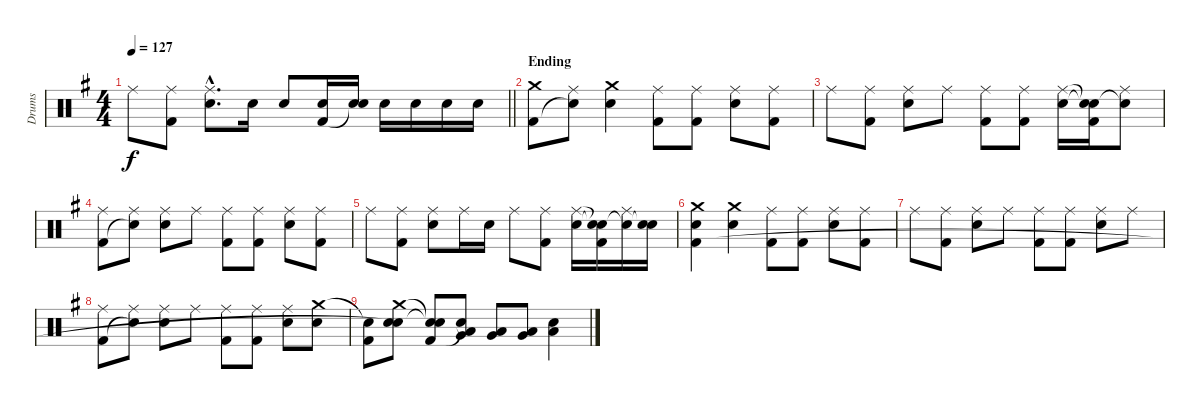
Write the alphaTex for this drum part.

\track ("Drums" "Drums") {instrument percussion}
\staff {score}
\articulation defaults
\ts (4 4)
\tempo 127
\clef neutral
\barLineRight lightlight
\ks eminor "Ride (middle)".8{dy f}
("Ride (middle)" "Kick (hit) 2").8 ("Ride (middle)"{hac} "Electric Snare (hit)"{hac}).8{d} "Electric Snare (hit)".16 "Electric Snare (hit)".8 ("Electric Snare (hit)" "Kick (hit) 2").16 ("Electric Snare (hit)" "Snare (hit)"{t}).16 "Electric Snare (hit)".16 "Electric Snare (hit)".16 "Electric Snare (hit)".16 "Electric Snare (hit)".16 |
\section ("" "Ending")
("Crash medium (hit)" "Kick (hit) 2").8 ("Ride (middle)" "Snare (hit)"{t}).8 ("Crash medium (hit)" "Electric Snare (hit)").4 ("Ride (middle)" "Kick (hit) 2").8 ("Ride (middle)" "Kick (hit) 2").8 ("Ride (middle)" "Electric Snare (hit)").8 ("Ride (middle)" "Kick (hit) 2").8 |
"Ride (middle)".8 ("Ride (middle)" "Kick (hit) 2").8 ("Ride (middle)" "Electric Snare (hit)").8 "Ride (middle)".8 ("Ride (middle)" "Kick (hit) 2").8 ("Ride (middle)" "Kick (hit) 2").8 ("Ride (middle)" "Electric Snare (hit)").16 ("Snare (hit)"{t} "Snare (hit)"{t} "Kick (hit) 2").16 ("Ride (middle)" "Snare (hit)"{t}).8 |
("Ride (middle)" "Kick (hit) 2").8 ("Ride (middle)" "Snare (hit)"{t}).8 ("Ride (middle)" "Electric Snare (hit)").8 "Ride (middle)".8 ("Ride (middle)" "Kick (hit) 2").8 ("Ride (middle)" "Kick (hit) 2").8 ("Ride (middle)" "Electric Snare (hit)").8 ("Ride (middle)" "Kick (hit) 2").8 |
"Ride (middle)".8 ("Ride (middle)" "Kick (hit) 2").8 ("Ride (middle)" "Electric Snare (hit)").8 "Ride (middle)".16 "Electric Snare (hit)".16 "Ride (middle)".8 ("Ride (middle)" "Kick (hit) 2").8 ("Ride (middle)" "Electric Snare (hit)").16 ("Snare (hit)"{t} "Snare (hit)"{t} "Kick (hit) 2").16 ("Ride (middle)" "Snare (hit)"{t}).16 ("Electric Snare (hit)" "Snare (hit)"{t}).16 |
("Crash medium (hit)" "Electric Snare (hit)" "Kick (hit) 2").4 ("Crash medium (hit)" "Electric Snare (hit)").4 ("Ride (middle)" "Kick (hit) 2").8 ("Ride (middle)" "Kick (hit) 2").8 ("Ride (middle)" "Electric Snare (hit)").8 ("Ride (middle)" "Kick (hit) 2").8 |
"Ride (middle)".8 ("Ride (middle)" "Kick (hit) 2").8 ("Ride (middle)" "Electric Snare (hit)").8 "Ride (middle)".8 ("Ride (middle)" "Kick (hit) 2").8 ("Ride (middle)" "Kick (hit) 2").8 ("Ride (middle)" "Electric Snare (hit)").8 "Ride (middle)".8 |
("Ride (middle)" "Kick (hit) 2").8 ("Ride (middle)" "Snare (hit)"{t}).8 ("Ride (middle)" "Electric Snare (hit)").8 "Ride (middle)".8 ("Ride (middle)" "Kick (hit) 2").8 ("Ride (middle)" "Kick (hit) 2").8 ("Ride (middle)" "Electric Snare (hit)").8 ("Crash medium (hit)" "Electric Snare (hit)").8 |
("Snare (hit)"{t} "Kick (hit) 2").8 ("Crash medium (hit)" "Electric Snare (hit)" "Snare (hit)"{t}).8 ("Snare (hit)"{t} "Snare (hit)"{t} "Kick (hit) 2").8 ("Very Low Tom (hit)" "Low Floor Tom (hit)" "Snare (hit)"{t}).8 ("Very Low Tom (hit)" "Low Floor Tom (hit)").8 ("Very Low Tom (hit)" "Low Floor Tom (hit)").8 ("Electric Snare (hit)" "Low Floor Tom (hit)").4
